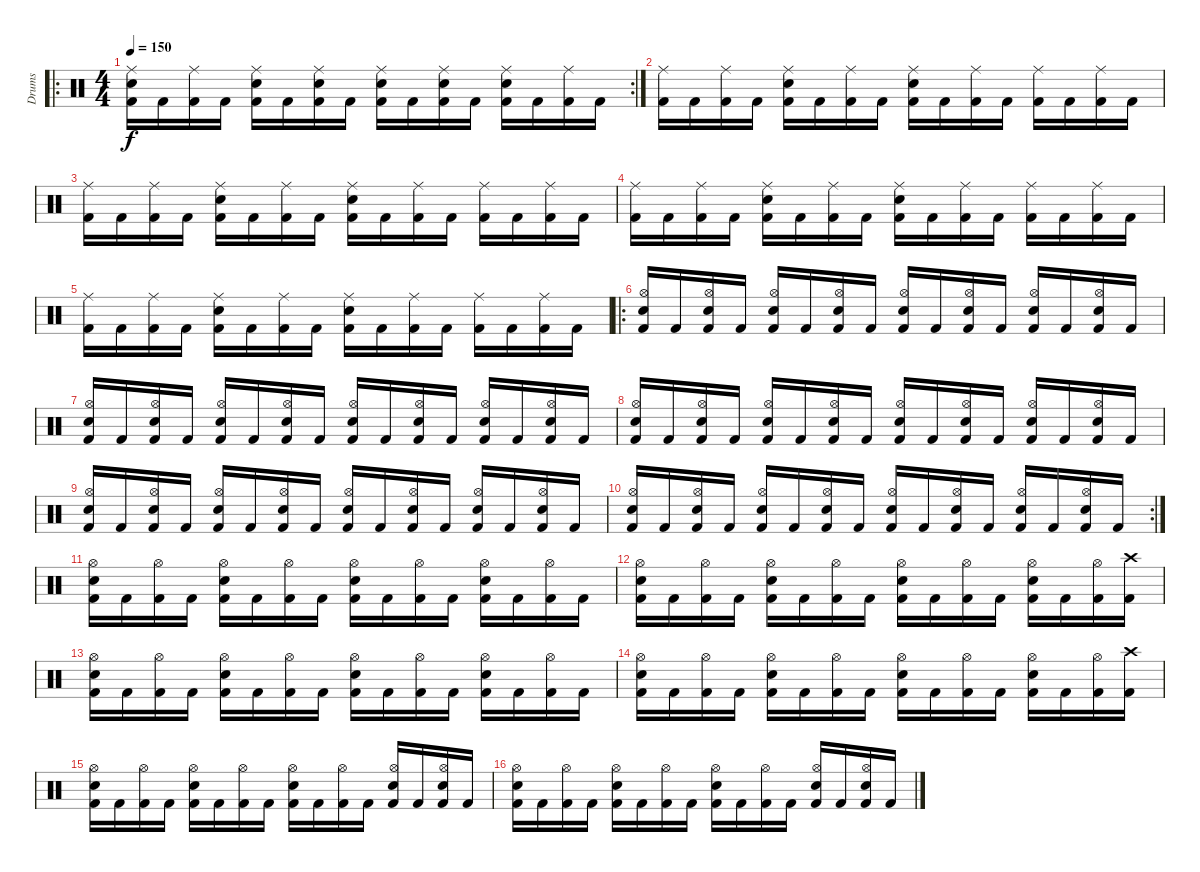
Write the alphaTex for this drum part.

\track ("Drums" "Drums") {instrument percussion}
\staff {score}
\articulation defaults
\ro
\rc 2
\ts (4 4)
\tempo 150
\clef neutral
\ks aminor
("Ride (middle)" "Snare (hit) 2" "Kick (hit) 2").16{dy f} "Kick (hit) 2".16 ("Ride (middle)" "Kick (hit) 2").16 "Kick (hit) 2".16 ("Ride (middle)" "Snare (hit) 2" "Kick (hit) 2").16 "Kick (hit) 2".16 ("Ride (middle)" "Snare (hit) 2" "Kick (hit) 2").16 "Kick (hit) 2".16 ("Ride (middle)" "Snare (hit) 2" "Kick (hit) 2").16 "Kick (hit) 2".16 ("Ride (middle)" "Snare (hit) 2" "Kick (hit) 2").16 "Kick (hit) 2".16 ("Ride (middle)" "Snare (hit) 2" "Kick (hit) 2").16 "Kick (hit) 2".16 ("Ride (middle)" "Kick (hit) 2").16 "Kick (hit) 2".16 |
("Ride (middle)" "Kick (hit) 2").16 "Kick (hit) 2".16 ("Ride (middle)" "Kick (hit) 2").16 "Kick (hit) 2".16 ("Ride (middle)" "Snare (hit) 2" "Kick (hit) 2").16 "Kick (hit) 2".16 ("Ride (middle)" "Kick (hit) 2").16 "Kick (hit) 2".16 ("Ride (middle)" "Snare (hit) 2" "Kick (hit) 2").16 "Kick (hit) 2".16 ("Ride (middle)" "Kick (hit) 2").16 "Kick (hit) 2".16 ("Ride (middle)" "Kick (hit) 2").16 "Kick (hit) 2".16 ("Ride (middle)" "Kick (hit) 2").16 "Kick (hit) 2".16 |
("Ride (middle)" "Kick (hit) 2").16 "Kick (hit) 2".16 ("Ride (middle)" "Kick (hit) 2").16 "Kick (hit) 2".16 ("Ride (middle)" "Snare (hit) 2" "Kick (hit) 2").16 "Kick (hit) 2".16 ("Ride (middle)" "Kick (hit) 2").16 "Kick (hit) 2".16 ("Ride (middle)" "Snare (hit) 2" "Kick (hit) 2").16 "Kick (hit) 2".16 ("Ride (middle)" "Kick (hit) 2").16 "Kick (hit) 2".16 ("Ride (middle)" "Kick (hit) 2").16 "Kick (hit) 2".16 ("Ride (middle)" "Kick (hit) 2").16 "Kick (hit) 2".16 |
("Ride (middle)" "Kick (hit) 2").16 "Kick (hit) 2".16 ("Ride (middle)" "Kick (hit) 2").16 "Kick (hit) 2".16 ("Ride (middle)" "Snare (hit) 2" "Kick (hit) 2").16 "Kick (hit) 2".16 ("Ride (middle)" "Kick (hit) 2").16 "Kick (hit) 2".16 ("Ride (middle)" "Snare (hit) 2" "Kick (hit) 2").16 "Kick (hit) 2".16 ("Ride (middle)" "Kick (hit) 2").16 "Kick (hit) 2".16 ("Ride (middle)" "Kick (hit) 2").16 "Kick (hit) 2".16 ("Ride (middle)" "Kick (hit) 2").16 "Kick (hit) 2".16 |
("Ride (middle)" "Kick (hit) 2").16 "Kick (hit) 2".16 ("Ride (middle)" "Kick (hit) 2").16 "Kick (hit) 2".16 ("Ride (middle)" "Snare (hit) 2" "Kick (hit) 2").16 "Kick (hit) 2".16 ("Ride (middle)" "Kick (hit) 2").16 "Kick (hit) 2".16 ("Ride (middle)" "Snare (hit) 2" "Kick (hit) 2").16 "Kick (hit) 2".16 ("Ride (middle)" "Kick (hit) 2").16 "Kick (hit) 2".16 ("Ride (middle)" "Kick (hit) 2").16 "Kick (hit) 2".16 ("Ride (middle)" "Kick (hit) 2").16 "Kick (hit) 2".16 |
\ro
("Hi-Hat (open)" "Electric Snare (hit)" "Kick (hit) 2").16 "Kick (hit) 2".16 ("Hi-Hat (open)" "Electric Snare (hit)" "Kick (hit) 2").16 "Kick (hit) 2".16 ("Hi-Hat (open)" "Electric Snare (hit)" "Kick (hit) 2").16 "Kick (hit) 2".16 ("Hi-Hat (open)" "Electric Snare (hit)" "Kick (hit) 2").16 "Kick (hit) 2".16 ("Hi-Hat (open)" "Electric Snare (hit)" "Kick (hit) 2").16 "Kick (hit) 2".16 ("Hi-Hat (open)" "Electric Snare (hit)" "Kick (hit) 2").16 "Kick (hit) 2".16 ("Hi-Hat (open)" "Electric Snare (hit)" "Kick (hit) 2").16 "Kick (hit) 2".16 ("Hi-Hat (open)" "Electric Snare (hit)" "Kick (hit) 2").16 "Kick (hit) 2".16 |
("Hi-Hat (open)" "Electric Snare (hit)" "Kick (hit) 2").16 "Kick (hit) 2".16 ("Hi-Hat (open)" "Electric Snare (hit)" "Kick (hit) 2").16 "Kick (hit) 2".16 ("Hi-Hat (open)" "Electric Snare (hit)" "Kick (hit) 2").16 "Kick (hit) 2".16 ("Hi-Hat (open)" "Electric Snare (hit)" "Kick (hit) 2").16 "Kick (hit) 2".16 ("Hi-Hat (open)" "Electric Snare (hit)" "Kick (hit) 2").16 "Kick (hit) 2".16 ("Hi-Hat (open)" "Electric Snare (hit)" "Kick (hit) 2").16 "Kick (hit) 2".16 ("Hi-Hat (open)" "Electric Snare (hit)" "Kick (hit) 2").16 "Kick (hit) 2".16 ("Hi-Hat (open)" "Electric Snare (hit)" "Kick (hit) 2").16 "Kick (hit) 2".16 |
("Hi-Hat (open)" "Electric Snare (hit)" "Kick (hit) 2").16 "Kick (hit) 2".16 ("Hi-Hat (open)" "Electric Snare (hit)" "Kick (hit) 2").16 "Kick (hit) 2".16 ("Hi-Hat (open)" "Electric Snare (hit)" "Kick (hit) 2").16 "Kick (hit) 2".16 ("Hi-Hat (open)" "Electric Snare (hit)" "Kick (hit) 2").16 "Kick (hit) 2".16 ("Hi-Hat (open)" "Electric Snare (hit)" "Kick (hit) 2").16 "Kick (hit) 2".16 ("Hi-Hat (open)" "Electric Snare (hit)" "Kick (hit) 2").16 "Kick (hit) 2".16 ("Hi-Hat (open)" "Electric Snare (hit)" "Kick (hit) 2").16 "Kick (hit) 2".16 ("Hi-Hat (open)" "Electric Snare (hit)" "Kick (hit) 2").16 "Kick (hit) 2".16 |
("Hi-Hat (open)" "Electric Snare (hit)" "Kick (hit) 2").16 "Kick (hit) 2".16 ("Hi-Hat (open)" "Electric Snare (hit)" "Kick (hit) 2").16 "Kick (hit) 2".16 ("Hi-Hat (open)" "Electric Snare (hit)" "Kick (hit) 2").16 "Kick (hit) 2".16 ("Hi-Hat (open)" "Electric Snare (hit)" "Kick (hit) 2").16 "Kick (hit) 2".16 ("Hi-Hat (open)" "Electric Snare (hit)" "Kick (hit) 2").16 "Kick (hit) 2".16 ("Hi-Hat (open)" "Electric Snare (hit)" "Kick (hit) 2").16 "Kick (hit) 2".16 ("Hi-Hat (open)" "Electric Snare (hit)" "Kick (hit) 2").16 "Kick (hit) 2".16 ("Hi-Hat (open)" "Electric Snare (hit)" "Kick (hit) 2").16 "Kick (hit) 2".16 |
\rc 2
("Hi-Hat (open)" "Electric Snare (hit)" "Kick (hit) 2").16 "Kick (hit) 2".16 ("Hi-Hat (open)" "Electric Snare (hit)" "Kick (hit) 2").16 "Kick (hit) 2".16 ("Hi-Hat (open)" "Electric Snare (hit)" "Kick (hit) 2").16 "Kick (hit) 2".16 ("Hi-Hat (open)" "Electric Snare (hit)" "Kick (hit) 2").16 "Kick (hit) 2".16 ("Hi-Hat (open)" "Electric Snare (hit)" "Kick (hit) 2").16 "Kick (hit) 2".16 ("Hi-Hat (open)" "Electric Snare (hit)" "Kick (hit) 2").16 "Kick (hit) 2".16 ("Hi-Hat (open)" "Electric Snare (hit)" "Kick (hit) 2").16 "Kick (hit) 2".16 ("Hi-Hat (open)" "Electric Snare (hit)" "Kick (hit) 2").16 "Kick (hit) 2".16 |
("Hi-Hat (open)" "Electric Snare (hit)" "Kick (hit) 2").16 "Kick (hit) 2".16 ("Hi-Hat (open)" "Kick (hit) 2").16 "Kick (hit) 2".16 ("Hi-Hat (open)" "Electric Snare (hit)" "Kick (hit) 2").16 "Kick (hit) 2".16 ("Hi-Hat (open)" "Kick (hit) 2").16 "Kick (hit) 2".16 ("Hi-Hat (open)" "Electric Snare (hit)" "Kick (hit) 2").16 "Kick (hit) 2".16 ("Hi-Hat (open)" "Kick (hit) 2").16 "Kick (hit) 2".16 ("Hi-Hat (open)" "Electric Snare (hit)" "Kick (hit) 2").16 "Kick (hit) 2".16 ("Hi-Hat (open)" "Kick (hit) 2").16 "Kick (hit) 2".16 |
("Hi-Hat (open)" "Electric Snare (hit)" "Kick (hit) 2").16 "Kick (hit) 2".16 ("Hi-Hat (open)" "Kick (hit) 2").16 "Kick (hit) 2".16 ("Hi-Hat (open)" "Electric Snare (hit)" "Kick (hit) 2").16 "Kick (hit) 2".16 ("Hi-Hat (open)" "Kick (hit) 2").16 "Kick (hit) 2".16 ("Hi-Hat (open)" "Electric Snare (hit)" "Kick (hit) 2").16 "Kick (hit) 2".16 ("Hi-Hat (open)" "Kick (hit) 2").16 "Kick (hit) 2".16 ("Hi-Hat (open)" "Electric Snare (hit)" "Kick (hit) 2").16 "Kick (hit) 2".16 ("Hi-Hat (open)" "Kick (hit) 2").16 ("Crash high (hit)" "Kick (hit) 2").16 |
("Hi-Hat (open)" "Electric Snare (hit)" "Kick (hit) 2").16 "Kick (hit) 2".16 ("Hi-Hat (open)" "Kick (hit) 2").16 "Kick (hit) 2".16 ("Hi-Hat (open)" "Electric Snare (hit)" "Kick (hit) 2").16 "Kick (hit) 2".16 ("Hi-Hat (open)" "Kick (hit) 2").16 "Kick (hit) 2".16 ("Hi-Hat (open)" "Electric Snare (hit)" "Kick (hit) 2").16 "Kick (hit) 2".16 ("Hi-Hat (open)" "Kick (hit) 2").16 "Kick (hit) 2".16 ("Hi-Hat (open)" "Electric Snare (hit)" "Kick (hit) 2").16 "Kick (hit) 2".16 ("Hi-Hat (open)" "Kick (hit) 2").16 "Kick (hit) 2".16 |
("Hi-Hat (open)" "Electric Snare (hit)" "Kick (hit) 2").16 "Kick (hit) 2".16 ("Hi-Hat (open)" "Kick (hit) 2").16 "Kick (hit) 2".16 ("Hi-Hat (open)" "Electric Snare (hit)" "Kick (hit) 2").16 "Kick (hit) 2".16 ("Hi-Hat (open)" "Kick (hit) 2").16 "Kick (hit) 2".16 ("Hi-Hat (open)" "Electric Snare (hit)" "Kick (hit) 2").16 "Kick (hit) 2".16 ("Hi-Hat (open)" "Kick (hit) 2").16 "Kick (hit) 2".16 ("Hi-Hat (open)" "Electric Snare (hit)" "Kick (hit) 2").16 "Kick (hit) 2".16 ("Hi-Hat (open)" "Kick (hit) 2").16 ("Crash high (hit)" "Kick (hit) 2").16 |
("Hi-Hat (open)" "Electric Snare (hit)" "Kick (hit) 2").16 "Kick (hit) 2".16 ("Hi-Hat (open)" "Kick (hit) 2").16 "Kick (hit) 2".16 ("Hi-Hat (open)" "Electric Snare (hit)" "Kick (hit) 2").16 "Kick (hit) 2".16 ("Hi-Hat (open)" "Kick (hit) 2").16 "Kick (hit) 2".16 ("Hi-Hat (open)" "Electric Snare (hit)" "Kick (hit) 2").16 "Kick (hit) 2".16 ("Hi-Hat (open)" "Kick (hit) 2").16 "Kick (hit) 2".16 ("Hi-Hat (open)" "Electric Snare (hit)" "Kick (hit) 2").16 "Kick (hit) 2".16 ("Hi-Hat (open)" "Electric Snare (hit)" "Kick (hit) 2").16 "Kick (hit) 2".16 |
("Hi-Hat (open)" "Electric Snare (hit)" "Kick (hit) 2").16 "Kick (hit) 2".16 ("Hi-Hat (open)" "Kick (hit) 2").16 "Kick (hit) 2".16 ("Hi-Hat (open)" "Electric Snare (hit)" "Kick (hit) 2").16 "Kick (hit) 2".16 ("Hi-Hat (open)" "Kick (hit) 2").16 "Kick (hit) 2".16 ("Hi-Hat (open)" "Electric Snare (hit)" "Kick (hit) 2").16 "Kick (hit) 2".16 ("Hi-Hat (open)" "Kick (hit) 2").16 "Kick (hit) 2".16 ("Hi-Hat (open)" "Electric Snare (hit)" "Kick (hit) 2").16 "Kick (hit) 2".16 ("Hi-Hat (open)" "Electric Snare (hit)" "Kick (hit) 2").16 "Kick (hit) 2".16
